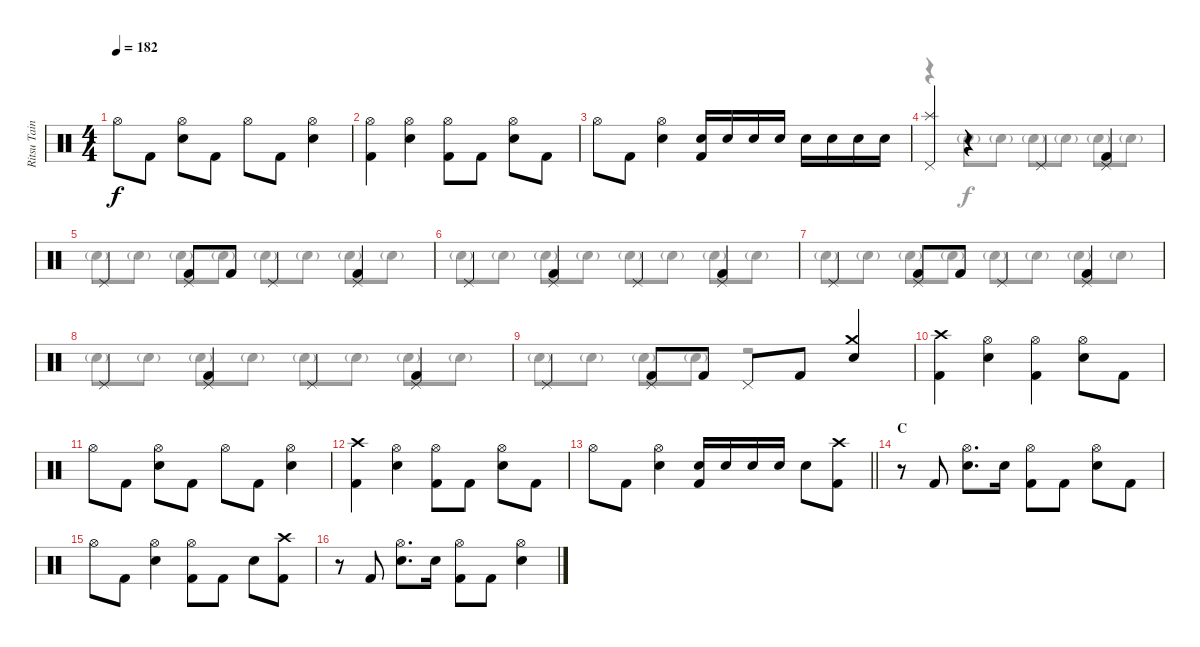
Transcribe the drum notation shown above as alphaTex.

\track ("Ritsu Tainaka" "Ritsu Tain") {instrument percussion}
\staff {score}
\articulation defaults
\voice
\ts (4 4)
\tempo 182
\clef neutral
\ks c "Hi-Hat (open)".8{dy f} "Kick (hit) 2".8
("Hi-Hat (open)" "Electric Snare (hit)").8 "Kick (hit) 2".8 "Hi-Hat (open)".8 "Kick (hit) 2".8 ("Hi-Hat (open)" "Electric Snare (hit)").4 |
("Hi-Hat (open)" "Kick (hit) 2").4 ("Hi-Hat (open)" "Electric Snare (hit)").4 ("Hi-Hat (open)" "Kick (hit) 2").8 "Kick (hit) 2".8 ("Hi-Hat (open)" "Electric Snare (hit)").8 "Kick (hit) 2".8 |
"Hi-Hat (open)".8 "Kick (hit) 2".8 ("Hi-Hat (open)" "Electric Snare (hit)").4 ("Electric Snare (hit)" "Kick (hit) 2").16 "Electric Snare (hit)".16 "Electric Snare (hit)".16 "Electric Snare (hit)".16 "Electric Snare (hit)".16 "Electric Snare (hit)".16 "Electric Snare (hit)".16 "Electric Snare (hit)".16 |
("Splash (hit)" "Pedal Hi-Hat (hit)").4 r.4 "Pedal Hi-Hat (hit)".4 ("Pedal Hi-Hat (hit)" "Kick (hit) 2").4 |
"Pedal Hi-Hat (hit)".4 ("Pedal Hi-Hat (hit)" "Kick (hit) 2").8 "Kick (hit) 2".8 "Pedal Hi-Hat (hit)".4 ("Pedal Hi-Hat (hit)" "Kick (hit) 2").4 |
"Pedal Hi-Hat (hit)".4 ("Pedal Hi-Hat (hit)" "Kick (hit) 2").4 "Pedal Hi-Hat (hit)".4 ("Pedal Hi-Hat (hit)" "Kick (hit) 2").4 |
"Pedal Hi-Hat (hit)".4 ("Pedal Hi-Hat (hit)" "Kick (hit) 2").8 "Kick (hit) 2".8 "Pedal Hi-Hat (hit)".4 ("Pedal Hi-Hat (hit)" "Kick (hit) 2").4 |
"Pedal Hi-Hat (hit)".4 ("Pedal Hi-Hat (hit)" "Kick (hit) 2").4 "Pedal Hi-Hat (hit)".4 ("Pedal Hi-Hat (hit)" "Kick (hit) 2").4 |
"Pedal Hi-Hat (hit)".4 ("Pedal Hi-Hat (hit)" "Kick (hit) 2").8 "Kick (hit) 2".8 "Pedal Hi-Hat (hit)".8 "Kick (hit) 2".8 ("Crash medium (hit)" "Electric Snare (hit)").4 |
("Crash high (hit)" "Kick (hit) 2").4 ("Hi-Hat (open)" "Electric Snare (hit)").4 ("Hi-Hat (open)" "Kick (hit) 2").4 ("Hi-Hat (open)" "Electric Snare (hit)").8 "Kick (hit) 2".8 |
"Hi-Hat (open)".8 "Kick (hit) 2".8 ("Hi-Hat (open)" "Electric Snare (hit)").8 "Kick (hit) 2".8 "Hi-Hat (open)".8 "Kick (hit) 2".8 ("Hi-Hat (open)" "Electric Snare (hit)").4 |
("Crash high (hit)" "Kick (hit) 2").4 ("Hi-Hat (open)" "Electric Snare (hit)").4 ("Hi-Hat (open)" "Kick (hit) 2").8 "Kick (hit) 2".8 ("Hi-Hat (open)" "Electric Snare (hit)").8 "Kick (hit) 2".8 |
\barLineRight lightlight "Hi-Hat (open)".8 "Kick (hit) 2".8
("Hi-Hat (open)" "Electric Snare (hit)").4 ("Electric Snare (hit)" "Kick (hit) 2").16 "Electric Snare (hit)".16 "Electric Snare (hit)".16 "Electric Snare (hit)".16 "Electric Snare (hit)".8 ("Crash high (hit)" "Kick (hit) 2").8 |
\section ("" "C")
r.8 "Kick (hit) 2".8 ("Hi-Hat (open)" "Electric Snare (hit)").8{d} "Electric Snare (hit)".16 ("Hi-Hat (open)" "Kick (hit) 2").8 "Kick (hit) 2".8 ("Hi-Hat (open)" "Electric Snare (hit)").8 "Kick (hit) 2".8 |
"Hi-Hat (open)".8 "Kick (hit) 2".8 ("Hi-Hat (open)" "Electric Snare (hit)").4 ("Hi-Hat (open)" "Kick (hit) 2").8 "Kick (hit) 2".8 "Electric Snare (hit)".8 ("Crash high (hit)" "Kick (hit) 2").8 |
r.8 "Kick (hit) 2".8 ("Hi-Hat (open)" "Electric Snare (hit)").8{d} "Electric Snare (hit)".16 ("Hi-Hat (open)" "Kick (hit) 2").8 "Kick (hit) 2".8 ("Hi-Hat (open)" "Electric Snare (hit)").4
\voice
\clef neutral
\ottava regular
\simile none
\ks c
|
|
|
r.4 "Electric Snare (hit)"{g}.8 "Electric Snare (hit)"{g}.8 "Electric Snare (hit)"{g}.8 "Electric Snare (hit)"{g}.8 "Electric Snare (hit)"{g}.8 "Electric Snare (hit)"{g}.8 |
"Electric Snare (hit)"{g}.8 "Electric Snare (hit)"{g}.8 "Electric Snare (hit)"{g}.8 "Electric Snare (hit)"{g}.8 "Electric Snare (hit)"{g}.8 "Electric Snare (hit)"{g}.8 "Electric Snare (hit)"{g}.8 "Electric Snare (hit)"{g}.8 |
"Electric Snare (hit)"{g}.8 "Electric Snare (hit)"{g}.8 "Electric Snare (hit)"{g}.8 "Electric Snare (hit)"{g}.8 "Electric Snare (hit)"{g}.8 "Electric Snare (hit)"{g}.8 "Electric Snare (hit)"{g}.8 "Electric Snare (hit)"{g}.8 |
"Electric Snare (hit)"{g}.8 "Electric Snare (hit)"{g}.8 "Electric Snare (hit)"{g}.8 "Electric Snare (hit)"{g}.8 "Electric Snare (hit)"{g}.8 "Electric Snare (hit)"{g}.8 "Electric Snare (hit)"{g}.8 "Electric Snare (hit)"{g}.8 |
"Electric Snare (hit)"{g}.8 "Electric Snare (hit)"{g}.8 "Electric Snare (hit)"{g}.8 "Electric Snare (hit)"{g}.8 "Electric Snare (hit)"{g}.8 "Electric Snare (hit)"{g}.8 "Electric Snare (hit)"{g}.8 "Electric Snare (hit)"{g}.8 |
"Electric Snare (hit)"{g}.8 "Electric Snare (hit)"{g}.8 "Electric Snare (hit)"{g}.8 "Electric Snare (hit)"{g}.8 r.2 |
|
|
|
\barLineRight lightlight
|
|
|
